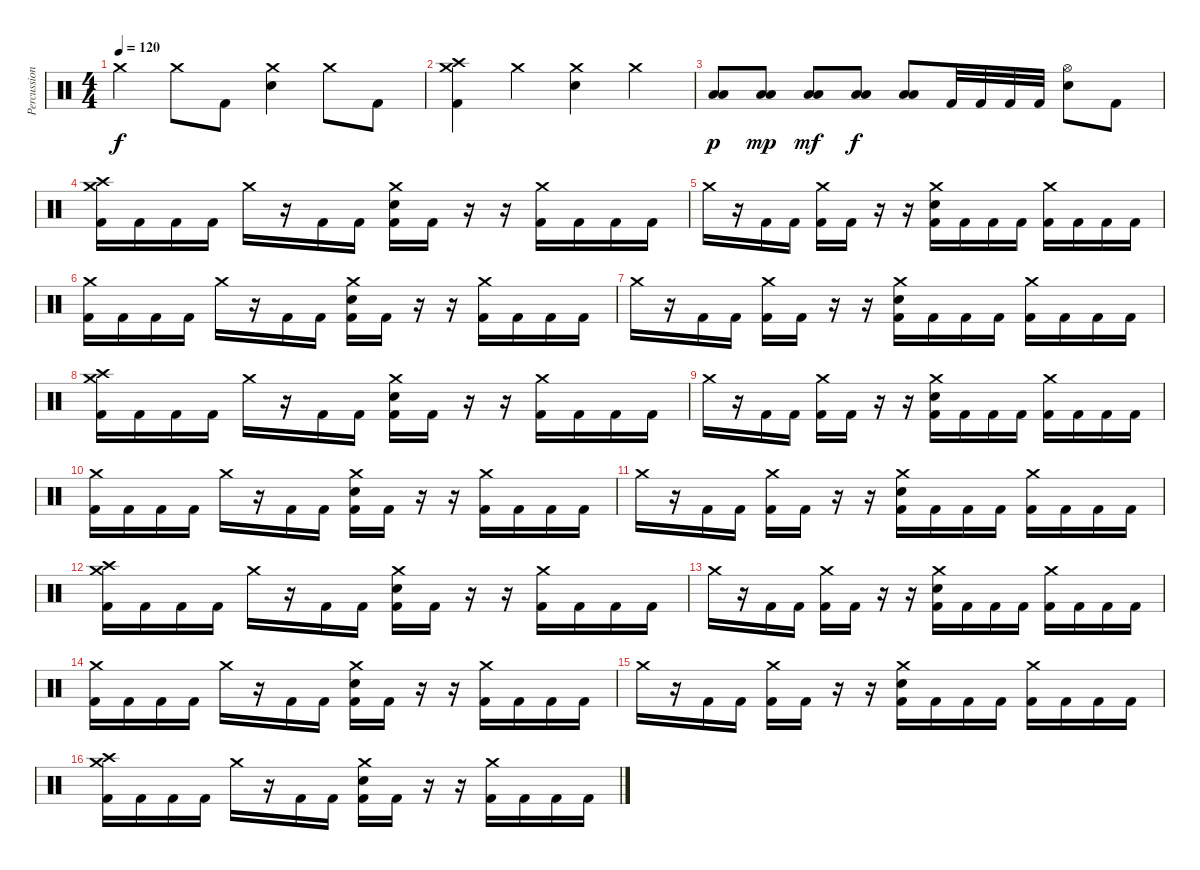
\track ("Percussion" "Percussion") {instrument percussion}
\staff {score}
\articulation defaults
\ts (4 4)
\tempo 120
\clef neutral
\ks c "Crash medium (hit)".4{dy f} "Crash medium (hit)".8 "Kick (hit) 2".8
("Crash medium (hit)" "Electric Snare (hit)").4 "Crash medium (hit)".8 "Kick (hit) 2".8 |
("Crash medium (hit)" "Crash high (hit)" "Kick (hit) 2").4 "Crash medium (hit)".4 ("Crash medium (hit)" "Electric Snare (hit)").4 "Crash medium (hit)".4 |
("Low Tom (hit)" "Low Floor Tom (hit)").8{dy p} ("Low Tom (hit)" "Low Floor Tom (hit)").8{dy mp} ("Low Tom (hit)" "Low Floor Tom (hit)").8{dy mf} ("Low Tom (hit)" "Low Floor Tom (hit)").8{dy f} ("Low Tom (hit)" "Low Floor Tom (hit)").8 "Kick (hit) 2".32 "Kick (hit) 2".32 "Kick (hit) 2".32 "Kick (hit) 2".32 ("Hi-Hat (open)" "Electric Snare (hit)").8 "Kick (hit) 2".8 |
("Crash medium (hit)" "Crash high (hit)" "Kick (hit) 2").16 "Kick (hit) 2".16 "Kick (hit) 2".16 "Kick (hit) 2".16 "Crash medium (hit)".16 r.16 "Kick (hit) 2".16 "Kick (hit) 2".16 ("Crash medium (hit)" "Electric Snare (hit)" "Kick (hit) 2").16 "Kick (hit) 2".16 r.16 r.16 ("Crash medium (hit)" "Kick (hit) 2").16 "Kick (hit) 2".16 "Kick (hit) 2".16 "Kick (hit) 2".16 |
"Crash medium (hit)".16 r.16 "Kick (hit) 2".16 "Kick (hit) 2".16 ("Crash medium (hit)" "Kick (hit) 2").16 "Kick (hit) 2".16 r.16 r.16 ("Crash medium (hit)" "Electric Snare (hit)" "Kick (hit) 2").16 "Kick (hit) 2".16 "Kick (hit) 2".16 "Kick (hit) 2".16 ("Crash medium (hit)" "Kick (hit) 2").16 "Kick (hit) 2".16 "Kick (hit) 2".16 "Kick (hit) 2".16 |
("Crash medium (hit)" "Kick (hit) 2").16 "Kick (hit) 2".16 "Kick (hit) 2".16 "Kick (hit) 2".16 "Crash medium (hit)".16 r.16 "Kick (hit) 2".16 "Kick (hit) 2".16 ("Crash medium (hit)" "Electric Snare (hit)" "Kick (hit) 2").16 "Kick (hit) 2".16 r.16 r.16 ("Crash medium (hit)" "Kick (hit) 2").16 "Kick (hit) 2".16 "Kick (hit) 2".16 "Kick (hit) 2".16 |
"Crash medium (hit)".16 r.16 "Kick (hit) 2".16 "Kick (hit) 2".16 ("Crash medium (hit)" "Kick (hit) 2").16 "Kick (hit) 2".16 r.16 r.16 ("Crash medium (hit)" "Electric Snare (hit)" "Kick (hit) 2").16 "Kick (hit) 2".16 "Kick (hit) 2".16 "Kick (hit) 2".16 ("Crash medium (hit)" "Kick (hit) 2").16 "Kick (hit) 2".16 "Kick (hit) 2".16 "Kick (hit) 2".16 |
("Crash medium (hit)" "Crash high (hit)" "Kick (hit) 2").16 "Kick (hit) 2".16 "Kick (hit) 2".16 "Kick (hit) 2".16 "Crash medium (hit)".16 r.16 "Kick (hit) 2".16 "Kick (hit) 2".16 ("Crash medium (hit)" "Electric Snare (hit)" "Kick (hit) 2").16 "Kick (hit) 2".16 r.16 r.16 ("Crash medium (hit)" "Kick (hit) 2").16 "Kick (hit) 2".16 "Kick (hit) 2".16 "Kick (hit) 2".16 |
"Crash medium (hit)".16 r.16 "Kick (hit) 2".16 "Kick (hit) 2".16 ("Crash medium (hit)" "Kick (hit) 2").16 "Kick (hit) 2".16 r.16 r.16 ("Crash medium (hit)" "Electric Snare (hit)" "Kick (hit) 2").16 "Kick (hit) 2".16 "Kick (hit) 2".16 "Kick (hit) 2".16 ("Crash medium (hit)" "Kick (hit) 2").16 "Kick (hit) 2".16 "Kick (hit) 2".16 "Kick (hit) 2".16 |
("Crash medium (hit)" "Kick (hit) 2").16 "Kick (hit) 2".16 "Kick (hit) 2".16 "Kick (hit) 2".16 "Crash medium (hit)".16 r.16 "Kick (hit) 2".16 "Kick (hit) 2".16 ("Crash medium (hit)" "Electric Snare (hit)" "Kick (hit) 2").16 "Kick (hit) 2".16 r.16 r.16 ("Crash medium (hit)" "Kick (hit) 2").16 "Kick (hit) 2".16 "Kick (hit) 2".16 "Kick (hit) 2".16 |
"Crash medium (hit)".16 r.16 "Kick (hit) 2".16 "Kick (hit) 2".16 ("Crash medium (hit)" "Kick (hit) 2").16 "Kick (hit) 2".16 r.16 r.16 ("Crash medium (hit)" "Electric Snare (hit)" "Kick (hit) 2").16 "Kick (hit) 2".16 "Kick (hit) 2".16 "Kick (hit) 2".16 ("Crash medium (hit)" "Kick (hit) 2").16 "Kick (hit) 2".16 "Kick (hit) 2".16 "Kick (hit) 2".16 |
("Crash medium (hit)" "Crash high (hit)" "Kick (hit) 2").16 "Kick (hit) 2".16 "Kick (hit) 2".16 "Kick (hit) 2".16 "Crash medium (hit)".16 r.16 "Kick (hit) 2".16 "Kick (hit) 2".16 ("Crash medium (hit)" "Electric Snare (hit)" "Kick (hit) 2").16 "Kick (hit) 2".16 r.16 r.16 ("Crash medium (hit)" "Kick (hit) 2").16 "Kick (hit) 2".16 "Kick (hit) 2".16 "Kick (hit) 2".16 |
"Crash medium (hit)".16 r.16 "Kick (hit) 2".16 "Kick (hit) 2".16 ("Crash medium (hit)" "Kick (hit) 2").16 "Kick (hit) 2".16 r.16 r.16 ("Crash medium (hit)" "Electric Snare (hit)" "Kick (hit) 2").16 "Kick (hit) 2".16 "Kick (hit) 2".16 "Kick (hit) 2".16 ("Crash medium (hit)" "Kick (hit) 2").16 "Kick (hit) 2".16 "Kick (hit) 2".16 "Kick (hit) 2".16 |
("Crash medium (hit)" "Kick (hit) 2").16 "Kick (hit) 2".16 "Kick (hit) 2".16 "Kick (hit) 2".16 "Crash medium (hit)".16 r.16 "Kick (hit) 2".16 "Kick (hit) 2".16 ("Crash medium (hit)" "Electric Snare (hit)" "Kick (hit) 2").16 "Kick (hit) 2".16 r.16 r.16 ("Crash medium (hit)" "Kick (hit) 2").16 "Kick (hit) 2".16 "Kick (hit) 2".16 "Kick (hit) 2".16 |
"Crash medium (hit)".16 r.16 "Kick (hit) 2".16 "Kick (hit) 2".16 ("Crash medium (hit)" "Kick (hit) 2").16 "Kick (hit) 2".16 r.16 r.16 ("Crash medium (hit)" "Electric Snare (hit)" "Kick (hit) 2").16 "Kick (hit) 2".16 "Kick (hit) 2".16 "Kick (hit) 2".16 ("Crash medium (hit)" "Kick (hit) 2").16 "Kick (hit) 2".16 "Kick (hit) 2".16 "Kick (hit) 2".16 |
("Crash medium (hit)" "Crash high (hit)" "Kick (hit) 2").16 "Kick (hit) 2".16 "Kick (hit) 2".16 "Kick (hit) 2".16 "Crash medium (hit)".16 r.16 "Kick (hit) 2".16 "Kick (hit) 2".16 ("Crash medium (hit)" "Electric Snare (hit)" "Kick (hit) 2").16 "Kick (hit) 2".16 r.16 r.16 ("Crash medium (hit)" "Kick (hit) 2").16 "Kick (hit) 2".16 "Kick (hit) 2".16 "Kick (hit) 2".16
